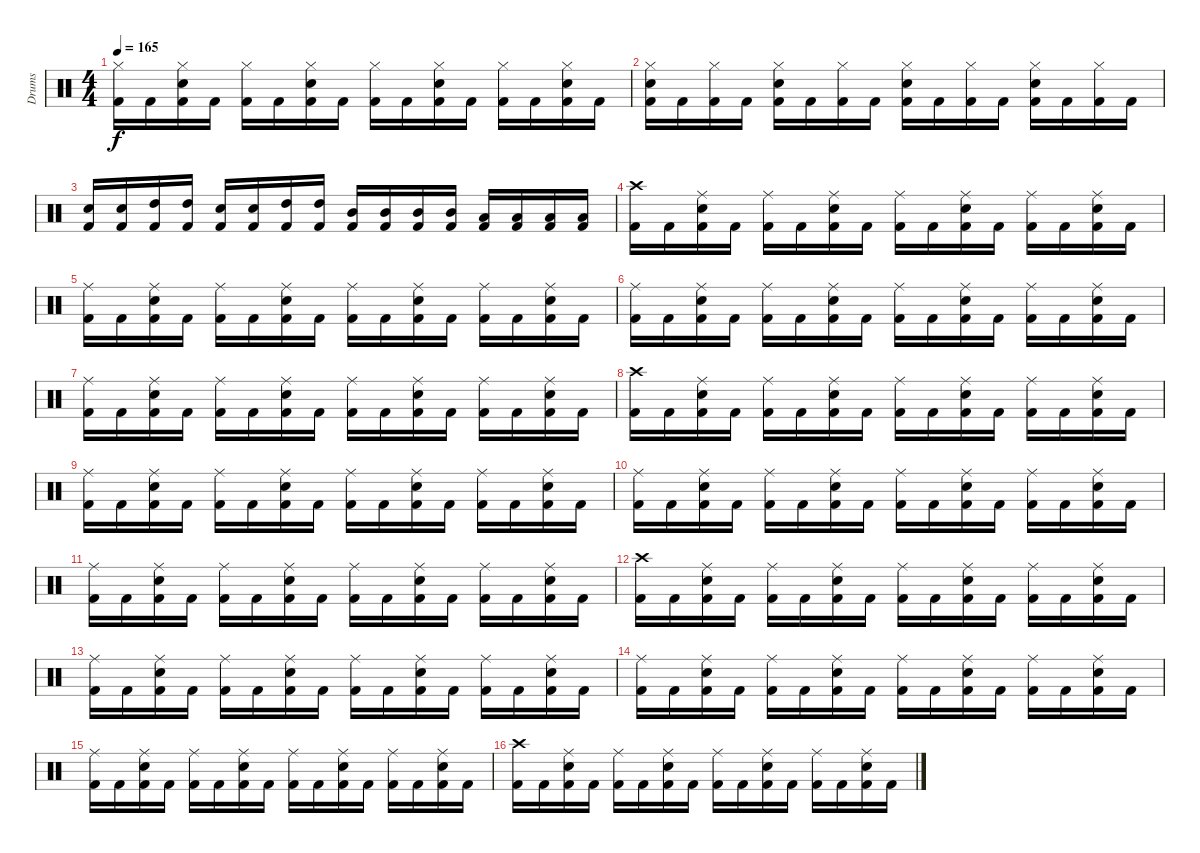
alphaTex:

\track ("Drums" "Drums") {instrument percussion}
\staff {score}
\articulation defaults
\ts (4 4)
\tempo 165
\clef neutral
\ks c
("Hi-Hat (closed)" "Kick (hit) 2").16{dy f} "Kick (hit) 2".16 ("Hi-Hat (closed)" "Electric Snare (hit)" "Kick (hit) 2").16 "Kick (hit) 2".16 ("Hi-Hat (closed)" "Kick (hit) 2").16 "Kick (hit) 2".16 ("Hi-Hat (closed)" "Electric Snare (hit)" "Kick (hit) 2").16 "Kick (hit) 2".16 ("Hi-Hat (closed)" "Kick (hit) 2").16 "Kick (hit) 2".16 ("Hi-Hat (closed)" "Electric Snare (hit)" "Kick (hit) 2").16 "Kick (hit) 2".16 ("Hi-Hat (closed)" "Kick (hit) 2").16 "Kick (hit) 2".16 ("Hi-Hat (closed)" "Electric Snare (hit)" "Kick (hit) 2").16 "Kick (hit) 2".16 |
("Hi-Hat (closed)" "Electric Snare (hit)" "Kick (hit) 2").16 "Kick (hit) 2".16 ("Hi-Hat (closed)" "Kick (hit) 2").16 "Kick (hit) 2".16 ("Hi-Hat (closed)" "Electric Snare (hit)" "Kick (hit) 2").16 "Kick (hit) 2".16 ("Hi-Hat (closed)" "Kick (hit) 2").16 "Kick (hit) 2".16 ("Hi-Hat (closed)" "Electric Snare (hit)" "Kick (hit) 2").16 "Kick (hit) 2".16 ("Hi-Hat (closed)" "Kick (hit) 2").16 "Kick (hit) 2".16 ("Hi-Hat (closed)" "Electric Snare (hit)" "Kick (hit) 2").16 "Kick (hit) 2".16 ("Hi-Hat (closed)" "Kick (hit) 2").16 "Kick (hit) 2".16 |
("Electric Snare (hit)" "Kick (hit) 2").16 ("Electric Snare (hit)" "Kick (hit) 2").16 ("High Tom (hit)" "Kick (hit) 2").16 ("High Tom (hit)" "Kick (hit) 2").16 ("Electric Snare (hit)" "Kick (hit) 2").16 ("Electric Snare (hit)" "Kick (hit) 2").16 ("High Tom (hit)" "Kick (hit) 2").16 ("High Tom (hit)" "Kick (hit) 2").16 ("Mid Tom (hit)" "Kick (hit) 2").16 ("Mid Tom (hit)" "Kick (hit) 2").16 ("Mid Tom (hit)" "Kick (hit) 2").16 ("Mid Tom (hit)" "Kick (hit) 2").16 ("Low Tom (hit)" "Kick (hit) 2").16 ("Low Tom (hit)" "Kick (hit) 2").16 ("Low Tom (hit)" "Kick (hit) 2").16 ("Low Tom (hit)" "Kick (hit) 2").16 |
("Crash high (hit)" "Kick (hit) 2").16 "Kick (hit) 2".16 ("Ride (middle)" "Electric Snare (hit)" "Kick (hit) 2").16 "Kick (hit) 2".16 ("Ride (middle)" "Kick (hit) 2").16 "Kick (hit) 2".16 ("Ride (middle)" "Electric Snare (hit)" "Kick (hit) 2").16 "Kick (hit) 2".16 ("Ride (middle)" "Kick (hit) 2").16 "Kick (hit) 2".16 ("Ride (middle)" "Electric Snare (hit)" "Kick (hit) 2").16 "Kick (hit) 2".16 ("Ride (middle)" "Kick (hit) 2").16 "Kick (hit) 2".16 ("Ride (middle)" "Electric Snare (hit)" "Kick (hit) 2").16 "Kick (hit) 2".16 |
("Ride (middle)" "Kick (hit) 2").16 "Kick (hit) 2".16 ("Ride (middle)" "Electric Snare (hit)" "Kick (hit) 2").16 "Kick (hit) 2".16 ("Ride (middle)" "Kick (hit) 2").16 "Kick (hit) 2".16 ("Ride (middle)" "Electric Snare (hit)" "Kick (hit) 2").16 "Kick (hit) 2".16 ("Ride (middle)" "Kick (hit) 2").16 "Kick (hit) 2".16 ("Ride (middle)" "Electric Snare (hit)" "Kick (hit) 2").16 "Kick (hit) 2".16 ("Ride (middle)" "Kick (hit) 2").16 "Kick (hit) 2".16 ("Ride (middle)" "Electric Snare (hit)" "Kick (hit) 2").16 "Kick (hit) 2".16 |
("Ride (middle)" "Kick (hit) 2").16 "Kick (hit) 2".16 ("Ride (middle)" "Electric Snare (hit)" "Kick (hit) 2").16 "Kick (hit) 2".16 ("Ride (middle)" "Kick (hit) 2").16 "Kick (hit) 2".16 ("Ride (middle)" "Electric Snare (hit)" "Kick (hit) 2").16 "Kick (hit) 2".16 ("Ride (middle)" "Kick (hit) 2").16 "Kick (hit) 2".16 ("Ride (middle)" "Electric Snare (hit)" "Kick (hit) 2").16 "Kick (hit) 2".16 ("Ride (middle)" "Kick (hit) 2").16 "Kick (hit) 2".16 ("Ride (middle)" "Electric Snare (hit)" "Kick (hit) 2").16 "Kick (hit) 2".16 |
("Ride (middle)" "Kick (hit) 2").16 "Kick (hit) 2".16 ("Ride (middle)" "Electric Snare (hit)" "Kick (hit) 2").16 "Kick (hit) 2".16 ("Ride (middle)" "Kick (hit) 2").16 "Kick (hit) 2".16 ("Ride (middle)" "Electric Snare (hit)" "Kick (hit) 2").16 "Kick (hit) 2".16 ("Ride (middle)" "Kick (hit) 2").16 "Kick (hit) 2".16 ("Ride (middle)" "Electric Snare (hit)" "Kick (hit) 2").16 "Kick (hit) 2".16 ("Ride (middle)" "Kick (hit) 2").16 "Kick (hit) 2".16 ("Ride (middle)" "Electric Snare (hit)" "Kick (hit) 2").16 "Kick (hit) 2".16 |
("Crash high (hit)" "Kick (hit) 2").16 "Kick (hit) 2".16 ("Ride (middle)" "Electric Snare (hit)" "Kick (hit) 2").16 "Kick (hit) 2".16 ("Ride (middle)" "Kick (hit) 2").16 "Kick (hit) 2".16 ("Ride (middle)" "Electric Snare (hit)" "Kick (hit) 2").16 "Kick (hit) 2".16 ("Ride (middle)" "Kick (hit) 2").16 "Kick (hit) 2".16 ("Ride (middle)" "Electric Snare (hit)" "Kick (hit) 2").16 "Kick (hit) 2".16 ("Ride (middle)" "Kick (hit) 2").16 "Kick (hit) 2".16 ("Ride (middle)" "Electric Snare (hit)" "Kick (hit) 2").16 "Kick (hit) 2".16 |
("Ride (middle)" "Kick (hit) 2").16 "Kick (hit) 2".16 ("Ride (middle)" "Electric Snare (hit)" "Kick (hit) 2").16 "Kick (hit) 2".16 ("Ride (middle)" "Kick (hit) 2").16 "Kick (hit) 2".16 ("Ride (middle)" "Electric Snare (hit)" "Kick (hit) 2").16 "Kick (hit) 2".16 ("Ride (middle)" "Kick (hit) 2").16 "Kick (hit) 2".16 ("Ride (middle)" "Electric Snare (hit)" "Kick (hit) 2").16 "Kick (hit) 2".16 ("Ride (middle)" "Kick (hit) 2").16 "Kick (hit) 2".16 ("Ride (middle)" "Electric Snare (hit)" "Kick (hit) 2").16 "Kick (hit) 2".16 |
("Ride (middle)" "Kick (hit) 2").16 "Kick (hit) 2".16 ("Ride (middle)" "Electric Snare (hit)" "Kick (hit) 2").16 "Kick (hit) 2".16 ("Ride (middle)" "Kick (hit) 2").16 "Kick (hit) 2".16 ("Ride (middle)" "Electric Snare (hit)" "Kick (hit) 2").16 "Kick (hit) 2".16 ("Ride (middle)" "Kick (hit) 2").16 "Kick (hit) 2".16 ("Ride (middle)" "Electric Snare (hit)" "Kick (hit) 2").16 "Kick (hit) 2".16 ("Ride (middle)" "Kick (hit) 2").16 "Kick (hit) 2".16 ("Ride (middle)" "Electric Snare (hit)" "Kick (hit) 2").16 "Kick (hit) 2".16 |
("Ride (middle)" "Kick (hit) 2").16 "Kick (hit) 2".16 ("Ride (middle)" "Electric Snare (hit)" "Kick (hit) 2").16 "Kick (hit) 2".16 ("Ride (middle)" "Kick (hit) 2").16 "Kick (hit) 2".16 ("Ride (middle)" "Electric Snare (hit)" "Kick (hit) 2").16 "Kick (hit) 2".16 ("Ride (middle)" "Kick (hit) 2").16 "Kick (hit) 2".16 ("Ride (middle)" "Electric Snare (hit)" "Kick (hit) 2").16 "Kick (hit) 2".16 ("Ride (middle)" "Kick (hit) 2").16 "Kick (hit) 2".16 ("Ride (middle)" "Electric Snare (hit)" "Kick (hit) 2").16 "Kick (hit) 2".16 |
("Crash high (hit)" "Kick (hit) 2").16 "Kick (hit) 2".16 ("Ride (middle)" "Electric Snare (hit)" "Kick (hit) 2").16 "Kick (hit) 2".16 ("Ride (middle)" "Kick (hit) 2").16 "Kick (hit) 2".16 ("Ride (middle)" "Electric Snare (hit)" "Kick (hit) 2").16 "Kick (hit) 2".16 ("Ride (middle)" "Kick (hit) 2").16 "Kick (hit) 2".16 ("Ride (middle)" "Electric Snare (hit)" "Kick (hit) 2").16 "Kick (hit) 2".16 ("Ride (middle)" "Kick (hit) 2").16 "Kick (hit) 2".16 ("Ride (middle)" "Electric Snare (hit)" "Kick (hit) 2").16 "Kick (hit) 2".16 |
("Ride (middle)" "Kick (hit) 2").16 "Kick (hit) 2".16 ("Ride (middle)" "Electric Snare (hit)" "Kick (hit) 2").16 "Kick (hit) 2".16 ("Ride (middle)" "Kick (hit) 2").16 "Kick (hit) 2".16 ("Ride (middle)" "Electric Snare (hit)" "Kick (hit) 2").16 "Kick (hit) 2".16 ("Ride (middle)" "Kick (hit) 2").16 "Kick (hit) 2".16 ("Ride (middle)" "Electric Snare (hit)" "Kick (hit) 2").16 "Kick (hit) 2".16 ("Ride (middle)" "Kick (hit) 2").16 "Kick (hit) 2".16 ("Ride (middle)" "Electric Snare (hit)" "Kick (hit) 2").16 "Kick (hit) 2".16 |
("Ride (middle)" "Kick (hit) 2").16 "Kick (hit) 2".16 ("Ride (middle)" "Electric Snare (hit)" "Kick (hit) 2").16 "Kick (hit) 2".16 ("Ride (middle)" "Kick (hit) 2").16 "Kick (hit) 2".16 ("Ride (middle)" "Electric Snare (hit)" "Kick (hit) 2").16 "Kick (hit) 2".16 ("Ride (middle)" "Kick (hit) 2").16 "Kick (hit) 2".16 ("Ride (middle)" "Electric Snare (hit)" "Kick (hit) 2").16 "Kick (hit) 2".16 ("Ride (middle)" "Kick (hit) 2").16 "Kick (hit) 2".16 ("Ride (middle)" "Electric Snare (hit)" "Kick (hit) 2").16 "Kick (hit) 2".16 |
("Ride (middle)" "Kick (hit) 2").16 "Kick (hit) 2".16 ("Ride (middle)" "Electric Snare (hit)" "Kick (hit) 2").16 "Kick (hit) 2".16 ("Ride (middle)" "Kick (hit) 2").16 "Kick (hit) 2".16 ("Ride (middle)" "Electric Snare (hit)" "Kick (hit) 2").16 "Kick (hit) 2".16 ("Ride (middle)" "Kick (hit) 2").16 "Kick (hit) 2".16 ("Ride (middle)" "Electric Snare (hit)" "Kick (hit) 2").16 "Kick (hit) 2".16 ("Ride (middle)" "Kick (hit) 2").16 "Kick (hit) 2".16 ("Ride (middle)" "Electric Snare (hit)" "Kick (hit) 2").16 "Kick (hit) 2".16 |
("Crash high (hit)" "Kick (hit) 2").16 "Kick (hit) 2".16 ("Ride (middle)" "Electric Snare (hit)" "Kick (hit) 2").16 "Kick (hit) 2".16 ("Ride (middle)" "Kick (hit) 2").16 "Kick (hit) 2".16 ("Ride (middle)" "Electric Snare (hit)" "Kick (hit) 2").16 "Kick (hit) 2".16 ("Ride (middle)" "Kick (hit) 2").16 "Kick (hit) 2".16 ("Ride (middle)" "Electric Snare (hit)" "Kick (hit) 2").16 "Kick (hit) 2".16 ("Ride (middle)" "Kick (hit) 2").16 "Kick (hit) 2".16 ("Ride (middle)" "Electric Snare (hit)" "Kick (hit) 2").16 "Kick (hit) 2".16
